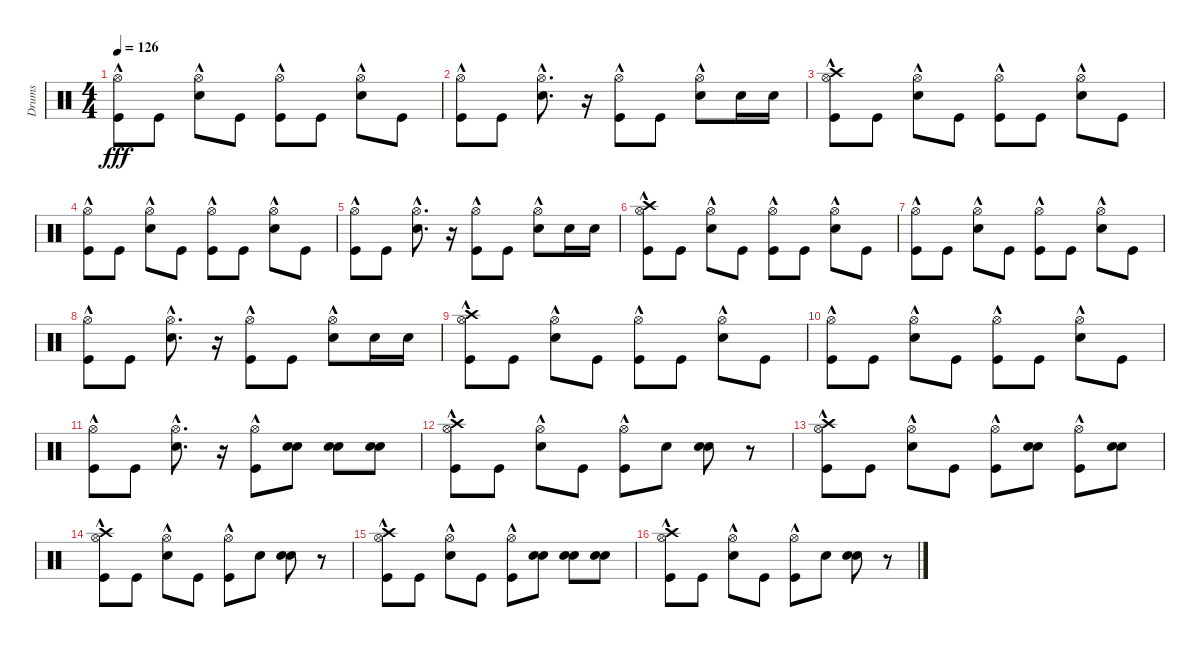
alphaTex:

\track ("Drums" "Drums") {instrument percussion}
\staff {score}
\articulation defaults
\ts (4 4)
\tempo 126
\clef neutral
\ks c
("Kick (hit)" "Hi-Hat (open)"{hac}).8{dy fff} "Kick (hit)".8 ("Hi-Hat (open)"{hac} "Electric Snare (hit)").8 "Kick (hit)".8 ("Hi-Hat (open)"{hac} "Kick (hit)").8 "Kick (hit)".8 ("Electric Snare (hit)" "Hi-Hat (open)"{hac}).8 "Kick (hit)".8 |
("Kick (hit)" "Hi-Hat (open)"{hac}).8 "Kick (hit)".8 ("Electric Snare (hit)"{hac} "Hi-Hat (open)"{hac}).8{d} r.16 ("Hi-Hat (open)"{hac} "Kick (hit)").8 "Kick (hit)".8 ("Electric Snare (hit)" "Hi-Hat (open)"{hac}).8 "Electric Snare (hit)".16 "Electric Snare (hit)".16 |
("Crash high (hit)"{hac} "Kick (hit)" "Hi-Hat (open)"{hac}).8 "Kick (hit)".8 ("Electric Snare (hit)" "Hi-Hat (open)"{hac}).8 "Kick (hit)".8 ("Kick (hit)" "Hi-Hat (open)"{hac}).8 "Kick (hit)".8 ("Hi-Hat (open)"{hac} "Electric Snare (hit)").8 "Kick (hit)".8 |
("Kick (hit)" "Hi-Hat (open)"{hac}).8 "Kick (hit)".8 ("Electric Snare (hit)" "Hi-Hat (open)"{hac}).8 "Kick (hit)".8 ("Kick (hit)" "Hi-Hat (open)"{hac}).8 "Kick (hit)".8 ("Electric Snare (hit)" "Hi-Hat (open)"{hac}).8 "Kick (hit)".8 |
("Kick (hit)" "Hi-Hat (open)"{hac}).8 "Kick (hit)".8 ("Hi-Hat (open)"{hac} "Electric Snare (hit)"{hac}).8{d} r.16 ("Hi-Hat (open)"{hac} "Kick (hit)").8 "Kick (hit)".8 ("Electric Snare (hit)" "Hi-Hat (open)"{hac}).8 "Electric Snare (hit)".16 "Electric Snare (hit)".16 |
("Hi-Hat (open)"{hac} "Crash high (hit)"{hac} "Kick (hit)").8 "Kick (hit)".8 ("Hi-Hat (open)"{hac} "Electric Snare (hit)").8 "Kick (hit)".8 ("Hi-Hat (open)"{hac} "Kick (hit)").8 "Kick (hit)".8 ("Electric Snare (hit)" "Hi-Hat (open)"{hac}).8 "Kick (hit)".8 |
("Kick (hit)" "Hi-Hat (open)"{hac}).8 "Kick (hit)".8 ("Hi-Hat (open)"{hac} "Electric Snare (hit)").8 "Kick (hit)".8 ("Hi-Hat (open)"{hac} "Kick (hit)").8 "Kick (hit)".8 ("Electric Snare (hit)" "Hi-Hat (open)"{hac}).8 "Kick (hit)".8 |
("Kick (hit)" "Hi-Hat (open)"{hac}).8 "Kick (hit)".8 ("Hi-Hat (open)"{hac} "Electric Snare (hit)"{hac}).8{d} r.16 ("Kick (hit)" "Hi-Hat (open)"{hac}).8 "Kick (hit)".8 ("Hi-Hat (open)"{hac} "Electric Snare (hit)").8 "Electric Snare (hit)".16 "Electric Snare (hit)".16 |
("Kick (hit)" "Crash high (hit)"{hac} "Hi-Hat (open)"{hac}).8 "Kick (hit)".8 ("Electric Snare (hit)" "Hi-Hat (open)"{hac}).8 "Kick (hit)".8 ("Kick (hit)" "Hi-Hat (open)"{hac}).8 "Kick (hit)".8 ("Electric Snare (hit)" "Hi-Hat (open)"{hac}).8 "Kick (hit)".8 |
("Hi-Hat (open)"{hac} "Kick (hit)").8 "Kick (hit)".8 ("Electric Snare (hit)" "Hi-Hat (open)"{hac}).8 "Kick (hit)".8 ("Kick (hit)" "Hi-Hat (open)"{hac}).8 "Kick (hit)".8 ("Electric Snare (hit)" "Hi-Hat (open)"{hac}).8 "Kick (hit)".8 |
("Hi-Hat (open)"{hac} "Kick (hit)").8 "Kick (hit)".8 ("Electric Snare (hit)"{hac} "Hi-Hat (open)"{hac}).8{d} r.16 ("Hi-Hat (open)"{hac} "Kick (hit)").8 ("Electric Snare (hit)" "Snare (hit) 2").8 ("Snare (hit) 2" "Electric Snare (hit)").8 ("Electric Snare (hit)" "Snare (hit) 2").8 |
("Kick (hit)" "Crash high (hit)"{hac} "Hi-Hat (open)"{hac}).8 "Kick (hit)".8 ("Hi-Hat (open)"{hac} "Electric Snare (hit)").8 "Kick (hit)".8 ("Kick (hit)" "Hi-Hat (open)"{hac}).8 "Electric Snare (hit)".8 ("Electric Snare (hit)" "Snare (hit) 2").8 r.8 |
("Hi-Hat (open)"{hac} "Crash high (hit)"{hac} "Kick (hit)").8 "Kick (hit)".8 ("Hi-Hat (open)"{hac} "Electric Snare (hit)").8 "Kick (hit)".8 ("Kick (hit)" "Hi-Hat (open)"{hac}).8 ("Electric Snare (hit)" "Snare (hit) 2").8 ("Kick (hit)" "Hi-Hat (open)"{hac}).8 ("Snare (hit) 2" "Electric Snare (hit)").8 |
("Hi-Hat (open)"{hac} "Kick (hit)" "Crash high (hit)"{hac}).8 "Kick (hit)".8 ("Electric Snare (hit)" "Hi-Hat (open)"{hac}).8 "Kick (hit)".8 ("Kick (hit)" "Hi-Hat (open)"{hac}).8 "Electric Snare (hit)".8 ("Snare (hit) 2" "Electric Snare (hit)").8 r.8 |
("Crash high (hit)"{hac} "Kick (hit)" "Hi-Hat (open)"{hac}).8 "Kick (hit)".8 ("Electric Snare (hit)" "Hi-Hat (open)"{hac}).8 "Kick (hit)".8 ("Kick (hit)" "Hi-Hat (open)"{hac}).8 ("Snare (hit) 2" "Electric Snare (hit)").8 ("Snare (hit) 2" "Electric Snare (hit)").8 ("Electric Snare (hit)" "Snare (hit) 2").8 |
("Kick (hit)" "Crash high (hit)"{hac} "Hi-Hat (open)"{hac}).8 "Kick (hit)".8 ("Electric Snare (hit)" "Hi-Hat (open)"{hac}).8 "Kick (hit)".8 ("Hi-Hat (open)"{hac} "Kick (hit)").8 "Electric Snare (hit)".8 ("Electric Snare (hit)" "Snare (hit) 2").8 r.8
